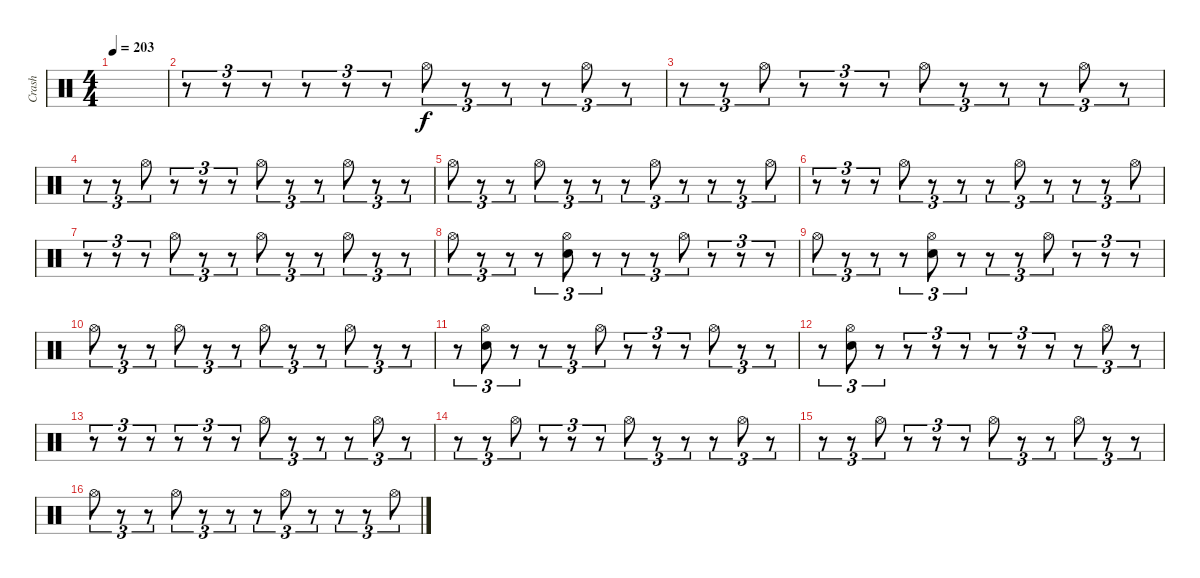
\track ("Crash" "Crash") {instrument percussion}
\staff {score}
\articulation defaults
\ts (4 4)
\tempo 203
\clef neutral
\ks c
|
r.8{tu (3 2)} r.8{tu (3 2)} r.8{tu (3 2)} r.8{tu (3 2)} r.8{tu (3 2)} r.8{tu (3 2)} "Hi-Hat (open)".8{tu (3 2)} r.8{tu (3 2)} r.8{tu (3 2)} r.8{tu (3 2)} "Hi-Hat (open)".8{tu (3 2)} r.8{tu (3 2)} |
r.8{tu (3 2)} r.8{tu (3 2)} "Hi-Hat (open)".8{tu (3 2)} r.8{tu (3 2)} r.8{tu (3 2)} r.8{tu (3 2)} "Hi-Hat (open)".8{tu (3 2)} r.8{tu (3 2)} r.8{tu (3 2)} r.8{tu (3 2)} "Hi-Hat (open)".8{tu (3 2)} r.8{tu (3 2)} |
r.8{tu (3 2)} r.8{tu (3 2)} "Hi-Hat (open)".8{tu (3 2)} r.8{tu (3 2)} r.8{tu (3 2)} r.8{tu (3 2)} "Hi-Hat (open)".8{tu (3 2)} r.8{tu (3 2)} r.8{tu (3 2)} "Hi-Hat (open)".8{tu (3 2)} r.8{tu (3 2)} r.8{tu (3 2)} |
"Hi-Hat (open)".8{tu (3 2)} r.8{tu (3 2)} r.8{tu (3 2)} "Hi-Hat (open)".8{tu (3 2)} r.8{tu (3 2)} r.8{tu (3 2)} r.8{tu (3 2)} "Hi-Hat (open)".8{tu (3 2)} r.8{tu (3 2)} r.8{tu (3 2)} r.8{tu (3 2)} "Hi-Hat (open)".8{tu (3 2)} |
r.8{tu (3 2)} r.8{tu (3 2)} r.8{tu (3 2)} "Hi-Hat (open)".8{tu (3 2)} r.8{tu (3 2)} r.8{tu (3 2)} r.8{tu (3 2)} "Hi-Hat (open)".8{tu (3 2)} r.8{tu (3 2)} r.8{tu (3 2)} r.8{tu (3 2)} "Hi-Hat (open)".8{tu (3 2)} |
r.8{tu (3 2)} r.8{tu (3 2)} r.8{tu (3 2)} "Hi-Hat (open)".8{tu (3 2)} r.8{tu (3 2)} r.8{tu (3 2)} "Hi-Hat (open)".8{tu (3 2)} r.8{tu (3 2)} r.8{tu (3 2)} "Hi-Hat (open)".8{tu (3 2)} r.8{tu (3 2)} r.8{tu (3 2)} |
"Hi-Hat (open)".8{tu (3 2)} r.8{tu (3 2)} r.8{tu (3 2)} r.8{tu (3 2)} ("Hi-Hat (open)" "Snare (hit) 2").8{tu (3 2)} r.8{tu (3 2)} r.8{tu (3 2)} r.8{tu (3 2)} "Hi-Hat (open)".8{tu (3 2)} r.8{tu (3 2)} r.8{tu (3 2)} r.8{tu (3 2)} |
"Hi-Hat (open)".8{tu (3 2)} r.8{tu (3 2)} r.8{tu (3 2)} r.8{tu (3 2)} ("Hi-Hat (open)" "Snare (hit) 2").8{tu (3 2)} r.8{tu (3 2)} r.8{tu (3 2)} r.8{tu (3 2)} "Hi-Hat (open)".8{tu (3 2)} r.8{tu (3 2)} r.8{tu (3 2)} r.8{tu (3 2)} |
"Hi-Hat (open)".8{tu (3 2)} r.8{tu (3 2)} r.8{tu (3 2)} "Hi-Hat (open)".8{tu (3 2)} r.8{tu (3 2)} r.8{tu (3 2)} "Hi-Hat (open)".8{tu (3 2)} r.8{tu (3 2)} r.8{tu (3 2)} "Hi-Hat (open)".8{tu (3 2)} r.8{tu (3 2)} r.8{tu (3 2)} |
r.8{tu (3 2)} ("Hi-Hat (open)" "Snare (hit) 2").8{tu (3 2)} r.8{tu (3 2)} r.8{tu (3 2)} r.8{tu (3 2)} "Hi-Hat (open)".8{tu (3 2)} r.8{tu (3 2)} r.8{tu (3 2)} r.8{tu (3 2)} "Hi-Hat (open)".8{tu (3 2)} r.8{tu (3 2)} r.8{tu (3 2)} |
r.8{tu (3 2)} ("Hi-Hat (open)" "Snare (hit) 2").8{tu (3 2)} r.8{tu (3 2)} r.8{tu (3 2)} r.8{tu (3 2)} r.8{tu (3 2)} r.8{tu (3 2)} r.8{tu (3 2)} r.8{tu (3 2)} r.8{tu (3 2)} "Hi-Hat (open)".8{tu (3 2)} r.8{tu (3 2)} |
r.8{tu (3 2)} r.8{tu (3 2)} r.8{tu (3 2)} r.8{tu (3 2)} r.8{tu (3 2)} r.8{tu (3 2)} "Hi-Hat (open)".8{tu (3 2)} r.8{tu (3 2)} r.8{tu (3 2)} r.8{tu (3 2)} "Hi-Hat (open)".8{tu (3 2)} r.8{tu (3 2)} |
r.8{tu (3 2)} r.8{tu (3 2)} "Hi-Hat (open)".8{tu (3 2)} r.8{tu (3 2)} r.8{tu (3 2)} r.8{tu (3 2)} "Hi-Hat (open)".8{tu (3 2)} r.8{tu (3 2)} r.8{tu (3 2)} r.8{tu (3 2)} "Hi-Hat (open)".8{tu (3 2)} r.8{tu (3 2)} |
r.8{tu (3 2)} r.8{tu (3 2)} "Hi-Hat (open)".8{tu (3 2)} r.8{tu (3 2)} r.8{tu (3 2)} r.8{tu (3 2)} "Hi-Hat (open)".8{tu (3 2)} r.8{tu (3 2)} r.8{tu (3 2)} "Hi-Hat (open)".8{tu (3 2)} r.8{tu (3 2)} r.8{tu (3 2)} |
"Hi-Hat (open)".8{tu (3 2)} r.8{tu (3 2)} r.8{tu (3 2)} "Hi-Hat (open)".8{tu (3 2)} r.8{tu (3 2)} r.8{tu (3 2)} r.8{tu (3 2)} "Hi-Hat (open)".8{tu (3 2)} r.8{tu (3 2)} r.8{tu (3 2)} r.8{tu (3 2)} "Hi-Hat (open)".8{tu (3 2)}
